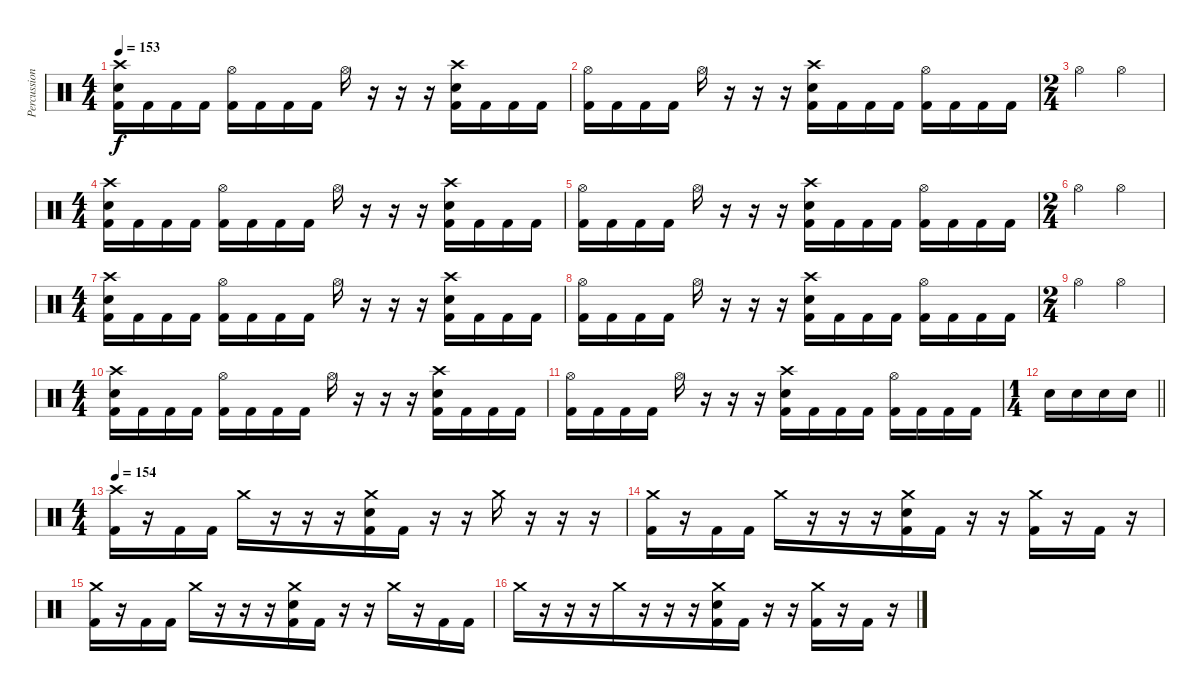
\track ("Percussion" "Percussion") {instrument percussion}
\staff {score}
\articulation defaults
\ts (4 4)
\section ("" "")
\tempo 153
\clef neutral
\ks c
("Crash high (hit)" "Electric Snare (hit)" "Kick (hit) 2").16{dy f beam merge} "Kick (hit) 2".16{beam merge} "Kick (hit) 2".16 "Kick (hit) 2".16 ("Hi-Hat (open)" "Kick (hit) 2").16 "Kick (hit) 2".16 "Kick (hit) 2".16{beam merge} "Kick (hit) 2".16 "Hi-Hat (open)".16 r.16{beam merge} r.16{beam merge} r.16 ("Crash high (hit)" "Electric Snare (hit)" "Kick (hit) 2").16{beam merge} "Kick (hit) 2".16 "Kick (hit) 2".16 "Kick (hit) 2".16 |
("Hi-Hat (open)" "Kick (hit) 2").16{beam merge} "Kick (hit) 2".16{beam merge} "Kick (hit) 2".16 "Kick (hit) 2".16 "Hi-Hat (open)".16 r.16 r.16{beam merge} r.16 ("Crash high (hit)" "Electric Snare (hit)" "Kick (hit) 2").16 "Kick (hit) 2".16{beam merge} "Kick (hit) 2".16{beam merge} "Kick (hit) 2".16 ("Hi-Hat (open)" "Kick (hit) 2").16{beam merge} "Kick (hit) 2".16 "Kick (hit) 2".16 "Kick (hit) 2".16 |
\ts (2 4)
"Hi-Hat (open)".4 "Hi-Hat (open)".4 |
\ts (4 4)
("Crash high (hit)" "Electric Snare (hit)" "Kick (hit) 2").16{beam merge} "Kick (hit) 2".16{beam merge} "Kick (hit) 2".16 "Kick (hit) 2".16 ("Hi-Hat (open)" "Kick (hit) 2").16 "Kick (hit) 2".16 "Kick (hit) 2".16{beam merge} "Kick (hit) 2".16 "Hi-Hat (open)".16 r.16{beam merge} r.16{beam merge} r.16 ("Crash high (hit)" "Electric Snare (hit)" "Kick (hit) 2").16{beam merge} "Kick (hit) 2".16 "Kick (hit) 2".16 "Kick (hit) 2".16 |
("Hi-Hat (open)" "Kick (hit) 2").16{beam merge} "Kick (hit) 2".16{beam merge} "Kick (hit) 2".16 "Kick (hit) 2".16 "Hi-Hat (open)".16 r.16 r.16{beam merge} r.16 ("Crash high (hit)" "Electric Snare (hit)" "Kick (hit) 2").16 "Kick (hit) 2".16{beam merge} "Kick (hit) 2".16{beam merge} "Kick (hit) 2".16 ("Hi-Hat (open)" "Kick (hit) 2").16{beam merge} "Kick (hit) 2".16 "Kick (hit) 2".16 "Kick (hit) 2".16 |
\ts (2 4)
"Hi-Hat (open)".4 "Hi-Hat (open)".4 |
\ts (4 4)
("Crash high (hit)" "Electric Snare (hit)" "Kick (hit) 2").16{beam merge} "Kick (hit) 2".16{beam merge} "Kick (hit) 2".16 "Kick (hit) 2".16 ("Hi-Hat (open)" "Kick (hit) 2").16 "Kick (hit) 2".16 "Kick (hit) 2".16{beam merge} "Kick (hit) 2".16 "Hi-Hat (open)".16 r.16{beam merge} r.16{beam merge} r.16 ("Crash high (hit)" "Electric Snare (hit)" "Kick (hit) 2").16{beam merge} "Kick (hit) 2".16 "Kick (hit) 2".16 "Kick (hit) 2".16 |
("Hi-Hat (open)" "Kick (hit) 2").16{beam merge} "Kick (hit) 2".16{beam merge} "Kick (hit) 2".16 "Kick (hit) 2".16 "Hi-Hat (open)".16 r.16 r.16{beam merge} r.16 ("Crash high (hit)" "Electric Snare (hit)" "Kick (hit) 2").16 "Kick (hit) 2".16{beam merge} "Kick (hit) 2".16{beam merge} "Kick (hit) 2".16 ("Hi-Hat (open)" "Kick (hit) 2").16{beam merge} "Kick (hit) 2".16 "Kick (hit) 2".16 "Kick (hit) 2".16 |
\ts (2 4)
"Hi-Hat (open)".4 "Hi-Hat (open)".4 |
\ts (4 4)
("Crash high (hit)" "Electric Snare (hit)" "Kick (hit) 2").16{beam merge} "Kick (hit) 2".16{beam merge} "Kick (hit) 2".16 "Kick (hit) 2".16 ("Hi-Hat (open)" "Kick (hit) 2").16 "Kick (hit) 2".16 "Kick (hit) 2".16{beam merge} "Kick (hit) 2".16 "Hi-Hat (open)".16 r.16{beam merge} r.16{beam merge} r.16 ("Crash high (hit)" "Electric Snare (hit)" "Kick (hit) 2").16{beam merge} "Kick (hit) 2".16 "Kick (hit) 2".16 "Kick (hit) 2".16 |
("Hi-Hat (open)" "Kick (hit) 2").16{beam merge} "Kick (hit) 2".16{beam merge} "Kick (hit) 2".16 "Kick (hit) 2".16 "Hi-Hat (open)".16 r.16 r.16{beam merge} r.16 ("Crash high (hit)" "Electric Snare (hit)" "Kick (hit) 2").16 "Kick (hit) 2".16{beam merge} "Kick (hit) 2".16{beam merge} "Kick (hit) 2".16 ("Hi-Hat (open)" "Kick (hit) 2").16{beam merge} "Kick (hit) 2".16 "Kick (hit) 2".16 "Kick (hit) 2".16 |
\ts (1 4)
\barLineRight lightlight "Electric Snare (hit)".16 "Electric Snare (hit)".16{beam merge} "Electric Snare (hit)".16 "Electric Snare (hit)".16
|
\ts (4 4)
\section ("" "")
\tempo 154
("Crash high (hit)" "Kick (hit) 2").16{beam merge} r.16 "Kick (hit) 2".16{beam merge} "Kick (hit) 2".16 "Crash medium (hit)".16{beam merge} r.16 r.16{beam merge} r.16{beam merge} ("Crash medium (hit)" "Electric Snare (hit)" "Kick (hit) 2").16 "Kick (hit) 2".16 r.16 r.16 "Crash medium (hit)".16 r.16{beam merge} r.16 r.16 |
("Crash medium (hit)" "Kick (hit) 2").16{beam merge} r.16 "Kick (hit) 2".16{beam merge} "Kick (hit) 2".16 "Crash medium (hit)".16{beam merge} r.16 r.16{beam merge} r.16{beam merge} ("Crash medium (hit)" "Electric Snare (hit)" "Kick (hit) 2").16 "Kick (hit) 2".16 r.16 r.16 ("Crash medium (hit)" "Kick (hit) 2").16 r.16{beam merge} "Kick (hit) 2".16 r.16 |
("Crash medium (hit)" "Kick (hit) 2").16{beam merge} r.16 "Kick (hit) 2".16{beam merge} "Kick (hit) 2".16 "Crash medium (hit)".16{beam merge} r.16 r.16{beam merge} r.16{beam merge} ("Crash medium (hit)" "Electric Snare (hit)" "Kick (hit) 2").16 "Kick (hit) 2".16 r.16 r.16 "Crash medium (hit)".16 r.16{beam merge} "Kick (hit) 2".16 "Kick (hit) 2".16 |
"Crash medium (hit)".16{beam merge} r.16 r.16{beam merge} r.16 "Crash medium (hit)".16{beam merge} r.16 r.16{beam merge} r.16{beam merge} ("Crash medium (hit)" "Electric Snare (hit)" "Kick (hit) 2").16 "Kick (hit) 2".16 r.16 r.16 ("Crash medium (hit)" "Kick (hit) 2").16 r.16{beam merge} "Kick (hit) 2".16 r.16
